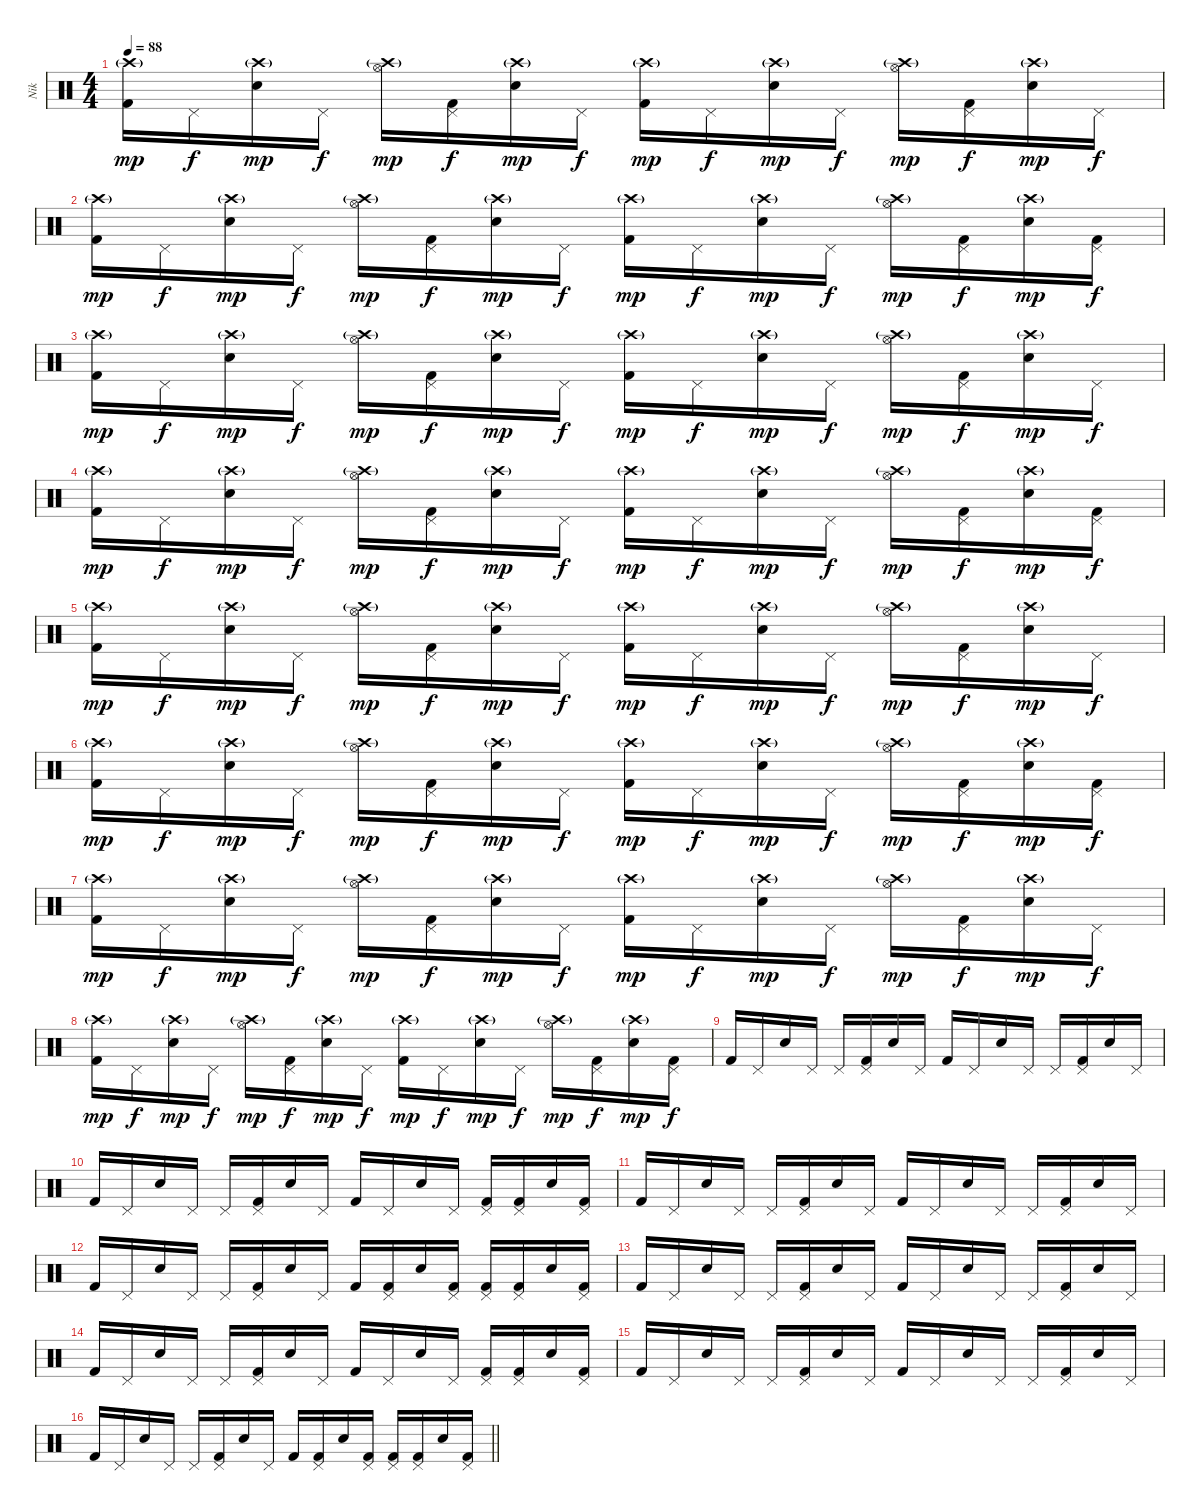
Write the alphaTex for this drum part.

\track ("Nik" "Nik") {solo instrument percussion}
\staff {score}
\articulation defaults
\ts (4 4)
\tempo 88
\clef neutral
\ks c
("Crash high (hit)"{g} "Kick (hit) 2").16{dy mp} "Pedal Hi-Hat (hit)".16{dy f} ("Crash high (hit)"{g} "Snare (hit) 2").16{dy mp} "Pedal Hi-Hat (hit)".16{dy f} ("Crash high (hit)"{g} "Hi-Hat (open)").16{dy mp} ("Pedal Hi-Hat (hit)" "Kick (hit) 2").16{dy f} ("Crash high (hit)"{g} "Snare (hit) 2").16{dy mp} "Pedal Hi-Hat (hit)".16{dy f} ("Crash high (hit)"{g} "Kick (hit) 2").16{dy mp} "Pedal Hi-Hat (hit)".16{dy f} ("Crash high (hit)"{g} "Snare (hit) 2").16{dy mp} "Pedal Hi-Hat (hit)".16{dy f} ("Crash high (hit)"{g} "Hi-Hat (open)").16{dy mp} ("Pedal Hi-Hat (hit)" "Kick (hit) 2").16{dy f} ("Crash high (hit)"{g} "Snare (hit) 2").16{dy mp} "Pedal Hi-Hat (hit)".16{dy f} |
("Crash high (hit)"{g} "Kick (hit) 2").16{dy mp} "Pedal Hi-Hat (hit)".16{dy f} ("Crash high (hit)"{g} "Snare (hit) 2").16{dy mp} "Pedal Hi-Hat (hit)".16{dy f} ("Crash high (hit)"{g} "Hi-Hat (open)").16{dy mp} ("Pedal Hi-Hat (hit)" "Kick (hit) 2").16{dy f} ("Crash high (hit)"{g} "Snare (hit) 2").16{dy mp} "Pedal Hi-Hat (hit)".16{dy f} ("Crash high (hit)"{g} "Kick (hit) 2").16{dy mp} "Pedal Hi-Hat (hit)".16{dy f} ("Crash high (hit)"{g} "Snare (hit) 2").16{dy mp} "Pedal Hi-Hat (hit)".16{dy f} ("Crash high (hit)"{g} "Hi-Hat (open)").16{dy mp} ("Pedal Hi-Hat (hit)" "Kick (hit) 2").16{dy f} ("Crash high (hit)"{g} "Snare (hit) 2").16{dy mp} ("Pedal Hi-Hat (hit)" "Kick (hit) 2").16{dy f} |
("Crash high (hit)"{g} "Kick (hit) 2").16{dy mp} "Pedal Hi-Hat (hit)".16{dy f} ("Crash high (hit)"{g} "Snare (hit) 2").16{dy mp} "Pedal Hi-Hat (hit)".16{dy f} ("Crash high (hit)"{g} "Hi-Hat (open)").16{dy mp} ("Pedal Hi-Hat (hit)" "Kick (hit) 2").16{dy f} ("Crash high (hit)"{g} "Snare (hit) 2").16{dy mp} "Pedal Hi-Hat (hit)".16{dy f} ("Crash high (hit)"{g} "Kick (hit) 2").16{dy mp} "Pedal Hi-Hat (hit)".16{dy f} ("Crash high (hit)"{g} "Snare (hit) 2").16{dy mp} "Pedal Hi-Hat (hit)".16{dy f} ("Crash high (hit)"{g} "Hi-Hat (open)").16{dy mp} ("Pedal Hi-Hat (hit)" "Kick (hit) 2").16{dy f} ("Crash high (hit)"{g} "Snare (hit) 2").16{dy mp} "Pedal Hi-Hat (hit)".16{dy f} |
("Crash high (hit)"{g} "Kick (hit) 2").16{dy mp} "Pedal Hi-Hat (hit)".16{dy f} ("Crash high (hit)"{g} "Snare (hit) 2").16{dy mp} "Pedal Hi-Hat (hit)".16{dy f} ("Crash high (hit)"{g} "Hi-Hat (open)").16{dy mp} ("Pedal Hi-Hat (hit)" "Kick (hit) 2").16{dy f} ("Crash high (hit)"{g} "Snare (hit) 2").16{dy mp} "Pedal Hi-Hat (hit)".16{dy f} ("Crash high (hit)"{g} "Kick (hit) 2").16{dy mp} "Pedal Hi-Hat (hit)".16{dy f} ("Crash high (hit)"{g} "Snare (hit) 2").16{dy mp} "Pedal Hi-Hat (hit)".16{dy f} ("Crash high (hit)"{g} "Hi-Hat (open)").16{dy mp} ("Pedal Hi-Hat (hit)" "Kick (hit) 2").16{dy f} ("Crash high (hit)"{g} "Snare (hit) 2").16{dy mp} ("Pedal Hi-Hat (hit)" "Kick (hit) 2").16{dy f} |
("Crash high (hit)"{g} "Kick (hit) 2").16{dy mp} "Pedal Hi-Hat (hit)".16{dy f} ("Crash high (hit)"{g} "Snare (hit) 2").16{dy mp} "Pedal Hi-Hat (hit)".16{dy f} ("Crash high (hit)"{g} "Hi-Hat (open)").16{dy mp} ("Pedal Hi-Hat (hit)" "Kick (hit) 2").16{dy f} ("Crash high (hit)"{g} "Snare (hit) 2").16{dy mp} "Pedal Hi-Hat (hit)".16{dy f} ("Crash high (hit)"{g} "Kick (hit) 2").16{dy mp} "Pedal Hi-Hat (hit)".16{dy f} ("Crash high (hit)"{g} "Snare (hit) 2").16{dy mp} "Pedal Hi-Hat (hit)".16{dy f} ("Crash high (hit)"{g} "Hi-Hat (open)").16{dy mp} ("Pedal Hi-Hat (hit)" "Kick (hit) 2").16{dy f} ("Crash high (hit)"{g} "Snare (hit) 2").16{dy mp} "Pedal Hi-Hat (hit)".16{dy f} |
("Crash high (hit)"{g} "Kick (hit) 2").16{dy mp} "Pedal Hi-Hat (hit)".16{dy f} ("Crash high (hit)"{g} "Snare (hit) 2").16{dy mp} "Pedal Hi-Hat (hit)".16{dy f} ("Crash high (hit)"{g} "Hi-Hat (open)").16{dy mp} ("Pedal Hi-Hat (hit)" "Kick (hit) 2").16{dy f} ("Crash high (hit)"{g} "Snare (hit) 2").16{dy mp} "Pedal Hi-Hat (hit)".16{dy f} ("Crash high (hit)"{g} "Kick (hit) 2").16{dy mp} "Pedal Hi-Hat (hit)".16{dy f} ("Crash high (hit)"{g} "Snare (hit) 2").16{dy mp} "Pedal Hi-Hat (hit)".16{dy f} ("Crash high (hit)"{g} "Hi-Hat (open)").16{dy mp} ("Pedal Hi-Hat (hit)" "Kick (hit) 2").16{dy f} ("Crash high (hit)"{g} "Snare (hit) 2").16{dy mp} ("Pedal Hi-Hat (hit)" "Kick (hit) 2").16{dy f} |
("Crash high (hit)"{g} "Kick (hit) 2").16{dy mp} "Pedal Hi-Hat (hit)".16{dy f} ("Crash high (hit)"{g} "Snare (hit) 2").16{dy mp} "Pedal Hi-Hat (hit)".16{dy f} ("Crash high (hit)"{g} "Hi-Hat (open)").16{dy mp} ("Pedal Hi-Hat (hit)" "Kick (hit) 2").16{dy f} ("Crash high (hit)"{g} "Snare (hit) 2").16{dy mp} "Pedal Hi-Hat (hit)".16{dy f} ("Crash high (hit)"{g} "Kick (hit) 2").16{dy mp} "Pedal Hi-Hat (hit)".16{dy f} ("Crash high (hit)"{g} "Snare (hit) 2").16{dy mp} "Pedal Hi-Hat (hit)".16{dy f} ("Crash high (hit)"{g} "Hi-Hat (open)").16{dy mp} ("Pedal Hi-Hat (hit)" "Kick (hit) 2").16{dy f} ("Crash high (hit)"{g} "Snare (hit) 2").16{dy mp} "Pedal Hi-Hat (hit)".16{dy f} |
("Crash high (hit)"{g} "Kick (hit) 2").16{dy mp} "Pedal Hi-Hat (hit)".16{dy f} ("Crash high (hit)"{g} "Snare (hit) 2").16{dy mp} "Pedal Hi-Hat (hit)".16{dy f} ("Crash high (hit)"{g} "Hi-Hat (open)").16{dy mp} ("Pedal Hi-Hat (hit)" "Kick (hit) 2").16{dy f} ("Crash high (hit)"{g} "Snare (hit) 2").16{dy mp} "Pedal Hi-Hat (hit)".16{dy f} ("Crash high (hit)"{g} "Kick (hit) 2").16{dy mp} "Pedal Hi-Hat (hit)".16{dy f} ("Crash high (hit)"{g} "Snare (hit) 2").16{dy mp} "Pedal Hi-Hat (hit)".16{dy f} ("Crash high (hit)"{g} "Hi-Hat (open)").16{dy mp} ("Pedal Hi-Hat (hit)" "Kick (hit) 2").16{dy f} ("Crash high (hit)"{g} "Snare (hit) 2").16{dy mp} ("Pedal Hi-Hat (hit)" "Kick (hit) 2").16{dy f} |
"Kick (hit) 2".16 "Pedal Hi-Hat (hit)".16 "Snare (hit) 2".16 "Pedal Hi-Hat (hit)".16 "Pedal Hi-Hat (hit)".16 ("Pedal Hi-Hat (hit)" "Kick (hit) 2").16 "Snare (hit) 2".16 "Pedal Hi-Hat (hit)".16 "Kick (hit) 2".16 "Pedal Hi-Hat (hit)".16 "Snare (hit) 2".16 "Pedal Hi-Hat (hit)".16 "Pedal Hi-Hat (hit)".16 ("Pedal Hi-Hat (hit)" "Kick (hit) 2").16 "Snare (hit) 2".16 "Pedal Hi-Hat (hit)".16 |
"Kick (hit) 2".16 "Pedal Hi-Hat (hit)".16 "Snare (hit) 2".16 "Pedal Hi-Hat (hit)".16 "Pedal Hi-Hat (hit)".16 ("Pedal Hi-Hat (hit)" "Kick (hit) 2").16 "Snare (hit) 2".16 "Pedal Hi-Hat (hit)".16 "Kick (hit) 2".16 "Pedal Hi-Hat (hit)".16 "Snare (hit) 2".16 "Pedal Hi-Hat (hit)".16 ("Pedal Hi-Hat (hit)" "Kick (hit) 2").16 ("Pedal Hi-Hat (hit)" "Kick (hit) 2").16 "Snare (hit) 2".16 ("Pedal Hi-Hat (hit)" "Kick (hit) 2").16 |
"Kick (hit) 2".16 "Pedal Hi-Hat (hit)".16 "Snare (hit) 2".16 "Pedal Hi-Hat (hit)".16 "Pedal Hi-Hat (hit)".16 ("Pedal Hi-Hat (hit)" "Kick (hit) 2").16 "Snare (hit) 2".16 "Pedal Hi-Hat (hit)".16 "Kick (hit) 2".16 "Pedal Hi-Hat (hit)".16 "Snare (hit) 2".16 "Pedal Hi-Hat (hit)".16 "Pedal Hi-Hat (hit)".16 ("Pedal Hi-Hat (hit)" "Kick (hit) 2").16 "Snare (hit) 2".16 "Pedal Hi-Hat (hit)".16 |
"Kick (hit) 2".16 "Pedal Hi-Hat (hit)".16 "Snare (hit) 2".16 "Pedal Hi-Hat (hit)".16 "Pedal Hi-Hat (hit)".16 ("Pedal Hi-Hat (hit)" "Kick (hit) 2").16 "Snare (hit) 2".16 "Pedal Hi-Hat (hit)".16 "Kick (hit) 2".16 ("Pedal Hi-Hat (hit)" "Kick (hit) 2").16 "Snare (hit) 2".16 ("Pedal Hi-Hat (hit)" "Kick (hit) 2").16 ("Pedal Hi-Hat (hit)" "Kick (hit) 2").16 ("Pedal Hi-Hat (hit)" "Kick (hit) 2").16 "Snare (hit) 2".16 ("Pedal Hi-Hat (hit)" "Kick (hit) 2").16 |
"Kick (hit) 2".16 "Pedal Hi-Hat (hit)".16 "Snare (hit) 2".16 "Pedal Hi-Hat (hit)".16 "Pedal Hi-Hat (hit)".16 ("Pedal Hi-Hat (hit)" "Kick (hit) 2").16 "Snare (hit) 2".16 "Pedal Hi-Hat (hit)".16 "Kick (hit) 2".16 "Pedal Hi-Hat (hit)".16 "Snare (hit) 2".16 "Pedal Hi-Hat (hit)".16 "Pedal Hi-Hat (hit)".16 ("Pedal Hi-Hat (hit)" "Kick (hit) 2").16 "Snare (hit) 2".16 "Pedal Hi-Hat (hit)".16 |
"Kick (hit) 2".16 "Pedal Hi-Hat (hit)".16 "Snare (hit) 2".16 "Pedal Hi-Hat (hit)".16 "Pedal Hi-Hat (hit)".16 ("Pedal Hi-Hat (hit)" "Kick (hit) 2").16 "Snare (hit) 2".16 "Pedal Hi-Hat (hit)".16 "Kick (hit) 2".16 "Pedal Hi-Hat (hit)".16 "Snare (hit) 2".16 "Pedal Hi-Hat (hit)".16 ("Pedal Hi-Hat (hit)" "Kick (hit) 2").16 ("Pedal Hi-Hat (hit)" "Kick (hit) 2").16 "Snare (hit) 2".16 ("Pedal Hi-Hat (hit)" "Kick (hit) 2").16 |
"Kick (hit) 2".16 "Pedal Hi-Hat (hit)".16 "Snare (hit) 2".16 "Pedal Hi-Hat (hit)".16 "Pedal Hi-Hat (hit)".16 ("Pedal Hi-Hat (hit)" "Kick (hit) 2").16 "Snare (hit) 2".16 "Pedal Hi-Hat (hit)".16 "Kick (hit) 2".16 "Pedal Hi-Hat (hit)".16 "Snare (hit) 2".16 "Pedal Hi-Hat (hit)".16 "Pedal Hi-Hat (hit)".16 ("Pedal Hi-Hat (hit)" "Kick (hit) 2").16 "Snare (hit) 2".16 "Pedal Hi-Hat (hit)".16 |
\barLineRight lightlight "Kick (hit) 2".16 "Pedal Hi-Hat (hit)".16 "Snare (hit) 2".16 "Pedal Hi-Hat (hit)".16 "Pedal Hi-Hat (hit)".16
("Pedal Hi-Hat (hit)" "Kick (hit) 2").16 "Snare (hit) 2".16 "Pedal Hi-Hat (hit)".16 "Kick (hit) 2".16 ("Pedal Hi-Hat (hit)" "Kick (hit) 2").16 "Snare (hit) 2".16 ("Pedal Hi-Hat (hit)" "Kick (hit) 2").16 ("Pedal Hi-Hat (hit)" "Kick (hit) 2").16 ("Pedal Hi-Hat (hit)" "Kick (hit) 2").16 "Snare (hit) 2".16 ("Pedal Hi-Hat (hit)" "Kick (hit) 2").16
